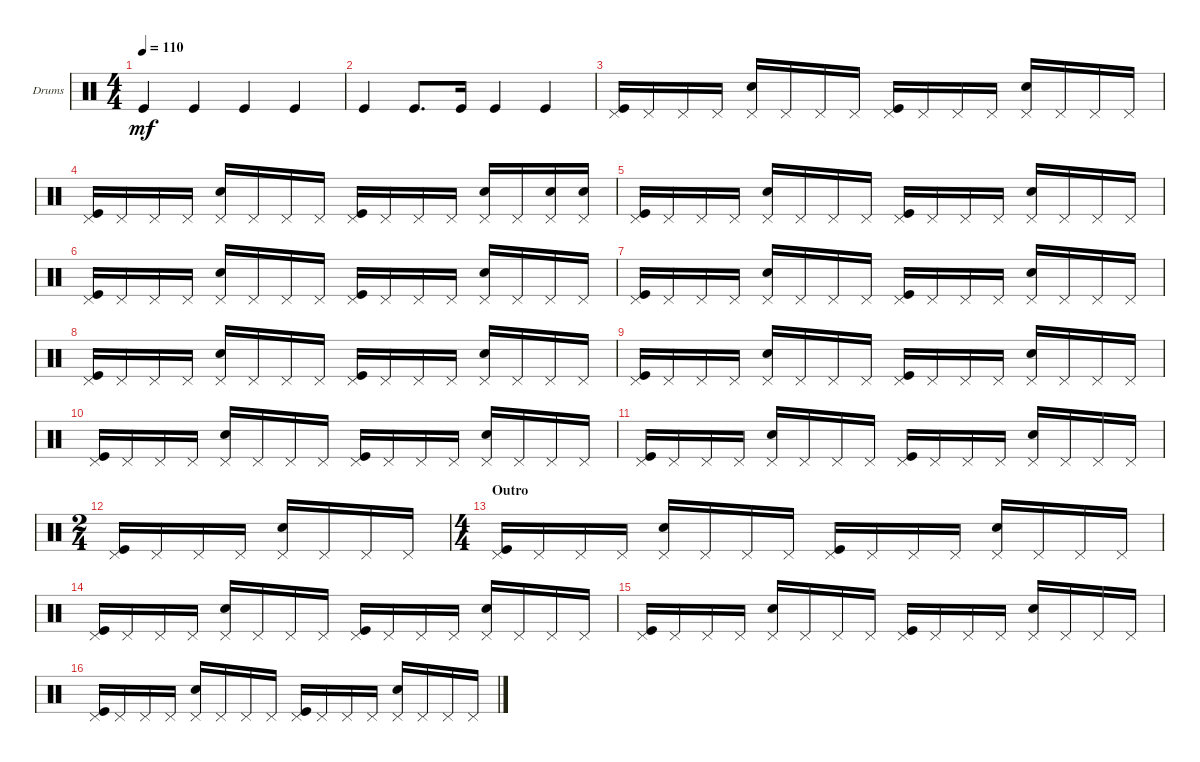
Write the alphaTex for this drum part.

\defaultSystemsLayout 4
\bracketExtendMode groupsimilarinstruments
\firstSystemTrackNameOrientation horizontal
\otherSystemsTrackNameOrientation horizontal
\track ("Drumkit" "Drums") {instrument percussion}
\staff {score}
\articulation defaults
\ts (4 4)
\tempo 110
\clef neutral
\ks c "Kick (hit)".4{dy mf} "Kick (hit)".4 "Kick (hit)".4 "Kick (hit)".4
|
"Kick (hit)".4 "Kick (hit)".8{d} "Kick (hit)".16 "Kick (hit)".4 "Kick (hit)".4 |
("Pedal Hi-Hat (hit)" "Kick (hit)").16 "Pedal Hi-Hat (hit)".16 "Pedal Hi-Hat (hit)".16 "Pedal Hi-Hat (hit)".16 ("Pedal Hi-Hat (hit)" "Snare (hit) 2").16 "Pedal Hi-Hat (hit)".16 "Pedal Hi-Hat (hit)".16 "Pedal Hi-Hat (hit)".16 ("Pedal Hi-Hat (hit)" "Kick (hit)").16 "Pedal Hi-Hat (hit)".16 "Pedal Hi-Hat (hit)".16 "Pedal Hi-Hat (hit)".16 ("Pedal Hi-Hat (hit)" "Snare (hit) 2").16 "Pedal Hi-Hat (hit)".16 "Pedal Hi-Hat (hit)".16 "Pedal Hi-Hat (hit)".16 |
("Pedal Hi-Hat (hit)" "Kick (hit)").16 "Pedal Hi-Hat (hit)".16 "Pedal Hi-Hat (hit)".16 "Pedal Hi-Hat (hit)".16 ("Pedal Hi-Hat (hit)" "Snare (hit) 2").16 "Pedal Hi-Hat (hit)".16 "Pedal Hi-Hat (hit)".16 "Pedal Hi-Hat (hit)".16 ("Pedal Hi-Hat (hit)" "Kick (hit)").16 "Pedal Hi-Hat (hit)".16 "Pedal Hi-Hat (hit)".16 "Pedal Hi-Hat (hit)".16 ("Pedal Hi-Hat (hit)" "Snare (hit) 2").16 "Pedal Hi-Hat (hit)".16 ("Pedal Hi-Hat (hit)" "Snare (hit) 2").16 ("Pedal Hi-Hat (hit)" "Snare (hit) 2").16 |
("Pedal Hi-Hat (hit)" "Kick (hit)").16 "Pedal Hi-Hat (hit)".16 "Pedal Hi-Hat (hit)".16 "Pedal Hi-Hat (hit)".16 ("Pedal Hi-Hat (hit)" "Snare (hit) 2").16 "Pedal Hi-Hat (hit)".16 "Pedal Hi-Hat (hit)".16 "Pedal Hi-Hat (hit)".16 ("Pedal Hi-Hat (hit)" "Kick (hit)").16 "Pedal Hi-Hat (hit)".16 "Pedal Hi-Hat (hit)".16 "Pedal Hi-Hat (hit)".16 ("Pedal Hi-Hat (hit)" "Snare (hit) 2").16 "Pedal Hi-Hat (hit)".16 "Pedal Hi-Hat (hit)".16 "Pedal Hi-Hat (hit)".16 |
("Pedal Hi-Hat (hit)" "Kick (hit)").16 "Pedal Hi-Hat (hit)".16 "Pedal Hi-Hat (hit)".16 "Pedal Hi-Hat (hit)".16 ("Pedal Hi-Hat (hit)" "Snare (hit) 2").16 "Pedal Hi-Hat (hit)".16 "Pedal Hi-Hat (hit)".16 "Pedal Hi-Hat (hit)".16 ("Pedal Hi-Hat (hit)" "Kick (hit)").16 "Pedal Hi-Hat (hit)".16 "Pedal Hi-Hat (hit)".16 "Pedal Hi-Hat (hit)".16 ("Pedal Hi-Hat (hit)" "Snare (hit) 2").16 "Pedal Hi-Hat (hit)".16 "Pedal Hi-Hat (hit)".16 "Pedal Hi-Hat (hit)".16 |
("Pedal Hi-Hat (hit)" "Kick (hit)").16 "Pedal Hi-Hat (hit)".16 "Pedal Hi-Hat (hit)".16 "Pedal Hi-Hat (hit)".16 ("Pedal Hi-Hat (hit)" "Snare (hit) 2").16 "Pedal Hi-Hat (hit)".16 "Pedal Hi-Hat (hit)".16 "Pedal Hi-Hat (hit)".16 ("Pedal Hi-Hat (hit)" "Kick (hit)").16 "Pedal Hi-Hat (hit)".16 "Pedal Hi-Hat (hit)".16 "Pedal Hi-Hat (hit)".16 ("Pedal Hi-Hat (hit)" "Snare (hit) 2").16 "Pedal Hi-Hat (hit)".16 "Pedal Hi-Hat (hit)".16 "Pedal Hi-Hat (hit)".16 |
("Pedal Hi-Hat (hit)" "Kick (hit)").16 "Pedal Hi-Hat (hit)".16 "Pedal Hi-Hat (hit)".16 "Pedal Hi-Hat (hit)".16 ("Pedal Hi-Hat (hit)" "Snare (hit) 2").16 "Pedal Hi-Hat (hit)".16 "Pedal Hi-Hat (hit)".16 "Pedal Hi-Hat (hit)".16 ("Pedal Hi-Hat (hit)" "Kick (hit)").16 "Pedal Hi-Hat (hit)".16 "Pedal Hi-Hat (hit)".16 "Pedal Hi-Hat (hit)".16 ("Pedal Hi-Hat (hit)" "Snare (hit) 2").16 "Pedal Hi-Hat (hit)".16 "Pedal Hi-Hat (hit)".16 "Pedal Hi-Hat (hit)".16 |
("Pedal Hi-Hat (hit)" "Kick (hit)").16 "Pedal Hi-Hat (hit)".16 "Pedal Hi-Hat (hit)".16 "Pedal Hi-Hat (hit)".16 ("Pedal Hi-Hat (hit)" "Snare (hit) 2").16 "Pedal Hi-Hat (hit)".16 "Pedal Hi-Hat (hit)".16 "Pedal Hi-Hat (hit)".16 ("Pedal Hi-Hat (hit)" "Kick (hit)").16 "Pedal Hi-Hat (hit)".16 "Pedal Hi-Hat (hit)".16 "Pedal Hi-Hat (hit)".16 ("Pedal Hi-Hat (hit)" "Snare (hit) 2").16 "Pedal Hi-Hat (hit)".16 "Pedal Hi-Hat (hit)".16 "Pedal Hi-Hat (hit)".16 |
("Pedal Hi-Hat (hit)" "Kick (hit)").16 "Pedal Hi-Hat (hit)".16 "Pedal Hi-Hat (hit)".16 "Pedal Hi-Hat (hit)".16 ("Pedal Hi-Hat (hit)" "Snare (hit) 2").16 "Pedal Hi-Hat (hit)".16 "Pedal Hi-Hat (hit)".16 "Pedal Hi-Hat (hit)".16 ("Pedal Hi-Hat (hit)" "Kick (hit)").16 "Pedal Hi-Hat (hit)".16 "Pedal Hi-Hat (hit)".16 "Pedal Hi-Hat (hit)".16 ("Pedal Hi-Hat (hit)" "Snare (hit) 2").16 "Pedal Hi-Hat (hit)".16 "Pedal Hi-Hat (hit)".16 "Pedal Hi-Hat (hit)".16 |
("Pedal Hi-Hat (hit)" "Kick (hit)").16 "Pedal Hi-Hat (hit)".16 "Pedal Hi-Hat (hit)".16 "Pedal Hi-Hat (hit)".16 ("Pedal Hi-Hat (hit)" "Snare (hit) 2").16 "Pedal Hi-Hat (hit)".16 "Pedal Hi-Hat (hit)".16 "Pedal Hi-Hat (hit)".16 ("Pedal Hi-Hat (hit)" "Kick (hit)").16 "Pedal Hi-Hat (hit)".16 "Pedal Hi-Hat (hit)".16 "Pedal Hi-Hat (hit)".16 ("Pedal Hi-Hat (hit)" "Snare (hit) 2").16 "Pedal Hi-Hat (hit)".16 "Pedal Hi-Hat (hit)".16 "Pedal Hi-Hat (hit)".16 |
\ts (2 4)
("Pedal Hi-Hat (hit)" "Kick (hit)").16 "Pedal Hi-Hat (hit)".16 "Pedal Hi-Hat (hit)".16 "Pedal Hi-Hat (hit)".16 ("Pedal Hi-Hat (hit)" "Snare (hit) 2").16 "Pedal Hi-Hat (hit)".16 "Pedal Hi-Hat (hit)".16 "Pedal Hi-Hat (hit)".16 |
\ts (4 4)
\section ("" "Outro")
("Pedal Hi-Hat (hit)" "Kick (hit)").16 "Pedal Hi-Hat (hit)".16 "Pedal Hi-Hat (hit)".16 "Pedal Hi-Hat (hit)".16 ("Pedal Hi-Hat (hit)" "Snare (hit) 2").16 "Pedal Hi-Hat (hit)".16 "Pedal Hi-Hat (hit)".16 "Pedal Hi-Hat (hit)".16 ("Pedal Hi-Hat (hit)" "Kick (hit)").16 "Pedal Hi-Hat (hit)".16 "Pedal Hi-Hat (hit)".16 "Pedal Hi-Hat (hit)".16 ("Pedal Hi-Hat (hit)" "Snare (hit) 2").16 "Pedal Hi-Hat (hit)".16 "Pedal Hi-Hat (hit)".16 "Pedal Hi-Hat (hit)".16 |
("Pedal Hi-Hat (hit)" "Kick (hit)").16 "Pedal Hi-Hat (hit)".16 "Pedal Hi-Hat (hit)".16 "Pedal Hi-Hat (hit)".16 ("Pedal Hi-Hat (hit)" "Snare (hit) 2").16 "Pedal Hi-Hat (hit)".16 "Pedal Hi-Hat (hit)".16 "Pedal Hi-Hat (hit)".16 ("Pedal Hi-Hat (hit)" "Kick (hit)").16 "Pedal Hi-Hat (hit)".16 "Pedal Hi-Hat (hit)".16 "Pedal Hi-Hat (hit)".16 ("Pedal Hi-Hat (hit)" "Snare (hit) 2").16 "Pedal Hi-Hat (hit)".16 "Pedal Hi-Hat (hit)".16 "Pedal Hi-Hat (hit)".16 |
("Pedal Hi-Hat (hit)" "Kick (hit)").16 "Pedal Hi-Hat (hit)".16 "Pedal Hi-Hat (hit)".16 "Pedal Hi-Hat (hit)".16 ("Pedal Hi-Hat (hit)" "Snare (hit) 2").16 "Pedal Hi-Hat (hit)".16 "Pedal Hi-Hat (hit)".16 "Pedal Hi-Hat (hit)".16 ("Pedal Hi-Hat (hit)" "Kick (hit)").16 "Pedal Hi-Hat (hit)".16 "Pedal Hi-Hat (hit)".16 "Pedal Hi-Hat (hit)".16 ("Pedal Hi-Hat (hit)" "Snare (hit) 2").16 "Pedal Hi-Hat (hit)".16 "Pedal Hi-Hat (hit)".16 "Pedal Hi-Hat (hit)".16 |
("Pedal Hi-Hat (hit)" "Kick (hit)").16 "Pedal Hi-Hat (hit)".16 "Pedal Hi-Hat (hit)".16 "Pedal Hi-Hat (hit)".16 ("Pedal Hi-Hat (hit)" "Snare (hit) 2").16 "Pedal Hi-Hat (hit)".16 "Pedal Hi-Hat (hit)".16 "Pedal Hi-Hat (hit)".16 ("Pedal Hi-Hat (hit)" "Kick (hit)").16 "Pedal Hi-Hat (hit)".16 "Pedal Hi-Hat (hit)".16 "Pedal Hi-Hat (hit)".16 ("Pedal Hi-Hat (hit)" "Snare (hit) 2").16 "Pedal Hi-Hat (hit)".16 "Pedal Hi-Hat (hit)".16 "Pedal Hi-Hat (hit)".16
